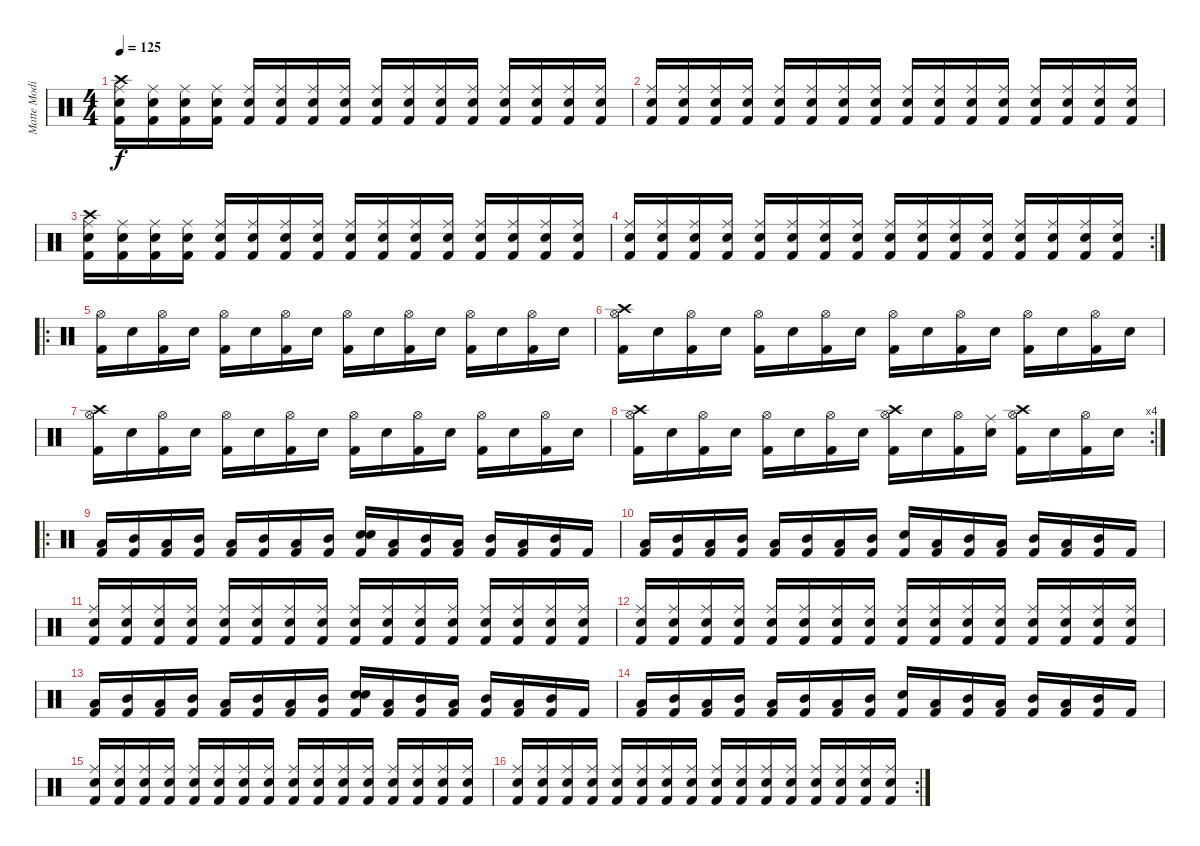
\track ("Matte Modin" "Matte Modi") {instrument percussion}
\staff {score}
\articulation defaults
\ts (4 4)
\tempo 125
\clef neutral
\ks c
("Crash high (hit)" "Kick (hit) 2" "Ride (middle)" "Electric Snare (hit)").16{dy f} ("Kick (hit) 2" "Ride (middle)" "Electric Snare (hit)").16 ("Kick (hit) 2" "Ride (middle)" "Electric Snare (hit)").16 ("Kick (hit) 2" "Ride (middle)" "Electric Snare (hit)").16 ("Kick (hit) 2" "Ride (middle)" "Electric Snare (hit)").16 ("Kick (hit) 2" "Ride (middle)" "Electric Snare (hit)").16 ("Kick (hit) 2" "Ride (middle)" "Electric Snare (hit)").16 ("Kick (hit) 2" "Ride (middle)" "Electric Snare (hit)").16 ("Kick (hit) 2" "Ride (middle)" "Electric Snare (hit)").16 ("Kick (hit) 2" "Ride (middle)" "Electric Snare (hit)").16 ("Kick (hit) 2" "Ride (middle)" "Electric Snare (hit)").16 ("Kick (hit) 2" "Ride (middle)" "Electric Snare (hit)").16 ("Kick (hit) 2" "Ride (middle)" "Electric Snare (hit)").16 ("Kick (hit) 2" "Ride (middle)" "Electric Snare (hit)").16 ("Kick (hit) 2" "Ride (middle)" "Electric Snare (hit)").16 ("Kick (hit) 2" "Ride (middle)" "Electric Snare (hit)").16 |
("Kick (hit) 2" "Ride (middle)" "Electric Snare (hit)").16 ("Kick (hit) 2" "Ride (middle)" "Electric Snare (hit)").16 ("Kick (hit) 2" "Ride (middle)" "Electric Snare (hit)").16 ("Kick (hit) 2" "Ride (middle)" "Electric Snare (hit)").16 ("Kick (hit) 2" "Ride (middle)" "Electric Snare (hit)").16 ("Kick (hit) 2" "Ride (middle)" "Electric Snare (hit)").16 ("Kick (hit) 2" "Ride (middle)" "Electric Snare (hit)").16 ("Kick (hit) 2" "Ride (middle)" "Electric Snare (hit)").16 ("Kick (hit) 2" "Ride (middle)" "Electric Snare (hit)").16 ("Kick (hit) 2" "Ride (middle)" "Electric Snare (hit)").16 ("Kick (hit) 2" "Ride (middle)" "Electric Snare (hit)").16 ("Kick (hit) 2" "Ride (middle)" "Electric Snare (hit)").16 ("Kick (hit) 2" "Ride (middle)" "Electric Snare (hit)").16 ("Kick (hit) 2" "Ride (middle)" "Electric Snare (hit)").16 ("Kick (hit) 2" "Ride (middle)" "Electric Snare (hit)").16 ("Kick (hit) 2" "Ride (middle)" "Electric Snare (hit)").16 |
("Crash high (hit)" "Kick (hit) 2" "Ride (middle)" "Electric Snare (hit)").16 ("Kick (hit) 2" "Ride (middle)" "Electric Snare (hit)").16 ("Kick (hit) 2" "Ride (middle)" "Electric Snare (hit)").16 ("Kick (hit) 2" "Ride (middle)" "Electric Snare (hit)").16 ("Kick (hit) 2" "Ride (middle)" "Electric Snare (hit)").16 ("Kick (hit) 2" "Ride (middle)" "Electric Snare (hit)").16 ("Kick (hit) 2" "Ride (middle)" "Electric Snare (hit)").16 ("Kick (hit) 2" "Ride (middle)" "Electric Snare (hit)").16 ("Kick (hit) 2" "Ride (middle)" "Electric Snare (hit)").16 ("Kick (hit) 2" "Ride (middle)" "Electric Snare (hit)").16 ("Kick (hit) 2" "Ride (middle)" "Electric Snare (hit)").16 ("Kick (hit) 2" "Ride (middle)" "Electric Snare (hit)").16 ("Kick (hit) 2" "Ride (middle)" "Electric Snare (hit)").16 ("Kick (hit) 2" "Ride (middle)" "Electric Snare (hit)").16 ("Kick (hit) 2" "Ride (middle)" "Electric Snare (hit)").16 ("Kick (hit) 2" "Ride (middle)" "Electric Snare (hit)").16 |
\rc 2
("Kick (hit) 2" "Ride (middle)" "Electric Snare (hit)").16 ("Kick (hit) 2" "Ride (middle)" "Electric Snare (hit)").16 ("Kick (hit) 2" "Ride (middle)" "Electric Snare (hit)").16 ("Kick (hit) 2" "Ride (middle)" "Electric Snare (hit)").16 ("Kick (hit) 2" "Ride (middle)" "Electric Snare (hit)").16 ("Kick (hit) 2" "Ride (middle)" "Electric Snare (hit)").16 ("Kick (hit) 2" "Ride (middle)" "Electric Snare (hit)").16 ("Kick (hit) 2" "Ride (middle)" "Electric Snare (hit)").16 ("Kick (hit) 2" "Ride (middle)" "Electric Snare (hit)").16 ("Kick (hit) 2" "Ride (middle)" "Electric Snare (hit)").16 ("Kick (hit) 2" "Ride (middle)" "Electric Snare (hit)").16 ("Kick (hit) 2" "Ride (middle)" "Electric Snare (hit)").16 ("Kick (hit) 2" "Ride (middle)" "Electric Snare (hit)").16 ("Kick (hit) 2" "Ride (middle)" "Electric Snare (hit)").16 ("Kick (hit) 2" "Ride (middle)" "Electric Snare (hit)").16 ("Kick (hit) 2" "Ride (middle)" "Electric Snare (hit)").16 |
\ro
("Hi-Hat (open)" "Kick (hit) 2").16 "Electric Snare (hit)".16 ("Hi-Hat (open)" "Kick (hit) 2").16 "Electric Snare (hit)".16 ("Hi-Hat (open)" "Kick (hit) 2").16 "Electric Snare (hit)".16 ("Hi-Hat (open)" "Kick (hit) 2").16 "Electric Snare (hit)".16 ("Hi-Hat (open)" "Kick (hit) 2").16 "Electric Snare (hit)".16 ("Hi-Hat (open)" "Kick (hit) 2").16 "Electric Snare (hit)".16 ("Hi-Hat (open)" "Kick (hit) 2").16 "Electric Snare (hit)".16 ("Hi-Hat (open)" "Kick (hit) 2").16 "Electric Snare (hit)".16 |
("Crash high (hit)" "Hi-Hat (open)" "Kick (hit) 2").16 "Electric Snare (hit)".16 ("Hi-Hat (open)" "Kick (hit) 2").16 "Electric Snare (hit)".16 ("Hi-Hat (open)" "Kick (hit) 2").16 "Electric Snare (hit)".16 ("Hi-Hat (open)" "Kick (hit) 2").16 "Electric Snare (hit)".16 ("Hi-Hat (open)" "Kick (hit) 2").16 "Electric Snare (hit)".16 ("Hi-Hat (open)" "Kick (hit) 2").16 "Electric Snare (hit)".16 ("Hi-Hat (open)" "Kick (hit) 2").16 "Electric Snare (hit)".16 ("Hi-Hat (open)" "Kick (hit) 2").16 "Electric Snare (hit)".16 |
("Crash high (hit)" "Hi-Hat (open)" "Kick (hit) 2").16 "Electric Snare (hit)".16 ("Hi-Hat (open)" "Kick (hit) 2").16 "Electric Snare (hit)".16 ("Hi-Hat (open)" "Kick (hit) 2").16 "Electric Snare (hit)".16 ("Hi-Hat (open)" "Kick (hit) 2").16 "Electric Snare (hit)".16 ("Hi-Hat (open)" "Kick (hit) 2").16 "Electric Snare (hit)".16 ("Hi-Hat (open)" "Kick (hit) 2").16 "Electric Snare (hit)".16 ("Hi-Hat (open)" "Kick (hit) 2").16 "Electric Snare (hit)".16 ("Hi-Hat (open)" "Kick (hit) 2").16 "Electric Snare (hit)".16 |
\rc 4
("Crash high (hit)" "Hi-Hat (open)" "Kick (hit) 2").16 "Electric Snare (hit)".16 ("Hi-Hat (open)" "Kick (hit) 2").16 "Electric Snare (hit)".16 ("Hi-Hat (open)" "Kick (hit) 2").16 "Electric Snare (hit)".16 ("Hi-Hat (open)" "Kick (hit) 2").16 "Electric Snare (hit)".16 ("Crash high (hit)" "Hi-Hat (open)" "Kick (hit) 2").16 "Electric Snare (hit)".16 ("Hi-Hat (open)" "Kick (hit) 2").16 ("Ride (middle)" "Electric Snare (hit)").16 ("Crash high (hit)" "Hi-Hat (open)" "Kick (hit) 2").16 "Electric Snare (hit)".16 ("Hi-Hat (open)" "Kick (hit) 2").16 "Electric Snare (hit)".16 |
\ro
("Low Tom (hit)" "Kick (hit) 2").16 ("Mid Tom (hit)" "Kick (hit) 2").16 ("Low Tom (hit)" "Kick (hit) 2").16 ("Mid Tom (hit)" "Kick (hit) 2").16 ("Low Tom (hit)" "Kick (hit) 2").16 ("Mid Tom (hit)" "Kick (hit) 2").16 ("Low Tom (hit)" "Kick (hit) 2").16 ("Mid Tom (hit)" "Kick (hit) 2").16 ("Electric Snare (hit)" "Electric Snare (hit)" "Kick (hit) 2").16 ("Low Tom (hit)" "Kick (hit) 2").16 ("Mid Tom (hit)" "Kick (hit) 2").16 ("Low Tom (hit)" "Kick (hit) 2").16 ("Mid Tom (hit)" "Kick (hit) 2").16 ("Low Tom (hit)" "Kick (hit) 2").16 ("Mid Tom (hit)" "Kick (hit) 2").16 "Kick (hit) 2".16 |
("Low Tom (hit)" "Kick (hit) 2").16 ("Mid Tom (hit)" "Kick (hit) 2").16 ("Low Tom (hit)" "Kick (hit) 2").16 ("Mid Tom (hit)" "Kick (hit) 2").16 ("Low Tom (hit)" "Kick (hit) 2").16 ("Mid Tom (hit)" "Kick (hit) 2").16 ("Low Tom (hit)" "Kick (hit) 2").16 ("Mid Tom (hit)" "Kick (hit) 2").16 ("Electric Snare (hit)" "Kick (hit) 2").16 ("Low Tom (hit)" "Kick (hit) 2").16 ("Mid Tom (hit)" "Kick (hit) 2").16 ("Low Tom (hit)" "Kick (hit) 2").16 ("Mid Tom (hit)" "Kick (hit) 2").16 ("Low Tom (hit)" "Kick (hit) 2").16 ("Mid Tom (hit)" "Kick (hit) 2").16 "Kick (hit) 2".16 |
("Kick (hit) 2" "Ride (middle)" "Electric Snare (hit)").16 ("Kick (hit) 2" "Ride (middle)" "Electric Snare (hit)").16 ("Kick (hit) 2" "Ride (middle)" "Electric Snare (hit)").16 ("Kick (hit) 2" "Ride (middle)" "Electric Snare (hit)").16 ("Kick (hit) 2" "Ride (middle)" "Electric Snare (hit)").16 ("Kick (hit) 2" "Ride (middle)" "Electric Snare (hit)").16 ("Kick (hit) 2" "Ride (middle)" "Electric Snare (hit)").16 ("Kick (hit) 2" "Ride (middle)" "Electric Snare (hit)").16 ("Kick (hit) 2" "Ride (middle)" "Electric Snare (hit)").16 ("Kick (hit) 2" "Ride (middle)" "Electric Snare (hit)").16 ("Kick (hit) 2" "Ride (middle)" "Electric Snare (hit)").16 ("Kick (hit) 2" "Ride (middle)" "Electric Snare (hit)").16 ("Kick (hit) 2" "Ride (middle)" "Electric Snare (hit)").16 ("Kick (hit) 2" "Ride (middle)" "Electric Snare (hit)").16 ("Kick (hit) 2" "Ride (middle)" "Electric Snare (hit)").16 ("Kick (hit) 2" "Ride (middle)" "Electric Snare (hit)").16 |
("Kick (hit) 2" "Ride (middle)" "Electric Snare (hit)").16 ("Kick (hit) 2" "Ride (middle)" "Electric Snare (hit)").16 ("Kick (hit) 2" "Ride (middle)" "Electric Snare (hit)").16 ("Kick (hit) 2" "Ride (middle)" "Electric Snare (hit)").16 ("Kick (hit) 2" "Ride (middle)" "Electric Snare (hit)").16 ("Kick (hit) 2" "Ride (middle)" "Electric Snare (hit)").16 ("Kick (hit) 2" "Ride (middle)" "Electric Snare (hit)").16 ("Kick (hit) 2" "Ride (middle)" "Electric Snare (hit)").16 ("Kick (hit) 2" "Ride (middle)" "Electric Snare (hit)").16 ("Kick (hit) 2" "Ride (middle)" "Electric Snare (hit)").16 ("Kick (hit) 2" "Ride (middle)" "Electric Snare (hit)").16 ("Kick (hit) 2" "Ride (middle)" "Electric Snare (hit)").16 ("Kick (hit) 2" "Ride (middle)" "Electric Snare (hit)").16 ("Kick (hit) 2" "Ride (middle)" "Electric Snare (hit)").16 ("Kick (hit) 2" "Ride (middle)" "Electric Snare (hit)").16 ("Kick (hit) 2" "Ride (middle)" "Electric Snare (hit)").16 |
("Low Tom (hit)" "Kick (hit) 2").16 ("Mid Tom (hit)" "Kick (hit) 2").16 ("Low Tom (hit)" "Kick (hit) 2").16 ("Mid Tom (hit)" "Kick (hit) 2").16 ("Low Tom (hit)" "Kick (hit) 2").16 ("Mid Tom (hit)" "Kick (hit) 2").16 ("Low Tom (hit)" "Kick (hit) 2").16 ("Mid Tom (hit)" "Kick (hit) 2").16 ("Electric Snare (hit)" "Electric Snare (hit)" "Kick (hit) 2").16 ("Low Tom (hit)" "Kick (hit) 2").16 ("Mid Tom (hit)" "Kick (hit) 2").16 ("Low Tom (hit)" "Kick (hit) 2").16 ("Mid Tom (hit)" "Kick (hit) 2").16 ("Low Tom (hit)" "Kick (hit) 2").16 ("Mid Tom (hit)" "Kick (hit) 2").16 "Kick (hit) 2".16 |
("Low Tom (hit)" "Kick (hit) 2").16 ("Mid Tom (hit)" "Kick (hit) 2").16 ("Low Tom (hit)" "Kick (hit) 2").16 ("Mid Tom (hit)" "Kick (hit) 2").16 ("Low Tom (hit)" "Kick (hit) 2").16 ("Mid Tom (hit)" "Kick (hit) 2").16 ("Low Tom (hit)" "Kick (hit) 2").16 ("Mid Tom (hit)" "Kick (hit) 2").16 ("Electric Snare (hit)" "Kick (hit) 2").16 ("Low Tom (hit)" "Kick (hit) 2").16 ("Mid Tom (hit)" "Kick (hit) 2").16 ("Low Tom (hit)" "Kick (hit) 2").16 ("Mid Tom (hit)" "Kick (hit) 2").16 ("Low Tom (hit)" "Kick (hit) 2").16 ("Mid Tom (hit)" "Kick (hit) 2").16 "Kick (hit) 2".16 |
("Kick (hit) 2" "Ride (middle)" "Electric Snare (hit)").16 ("Kick (hit) 2" "Ride (middle)" "Electric Snare (hit)").16 ("Kick (hit) 2" "Ride (middle)" "Electric Snare (hit)").16 ("Kick (hit) 2" "Ride (middle)" "Electric Snare (hit)").16 ("Kick (hit) 2" "Ride (middle)" "Electric Snare (hit)").16 ("Kick (hit) 2" "Ride (middle)" "Electric Snare (hit)").16 ("Kick (hit) 2" "Ride (middle)" "Electric Snare (hit)").16 ("Kick (hit) 2" "Ride (middle)" "Electric Snare (hit)").16 ("Kick (hit) 2" "Ride (middle)" "Electric Snare (hit)").16 ("Kick (hit) 2" "Ride (middle)" "Electric Snare (hit)").16 ("Kick (hit) 2" "Ride (middle)" "Electric Snare (hit)").16 ("Kick (hit) 2" "Ride (middle)" "Electric Snare (hit)").16 ("Kick (hit) 2" "Ride (middle)" "Electric Snare (hit)").16 ("Kick (hit) 2" "Ride (middle)" "Electric Snare (hit)").16 ("Kick (hit) 2" "Ride (middle)" "Electric Snare (hit)").16 ("Kick (hit) 2" "Ride (middle)" "Electric Snare (hit)").16 |
\rc 2
("Kick (hit) 2" "Ride (middle)" "Electric Snare (hit)").16 ("Kick (hit) 2" "Ride (middle)" "Electric Snare (hit)").16 ("Kick (hit) 2" "Ride (middle)" "Electric Snare (hit)").16 ("Kick (hit) 2" "Ride (middle)" "Electric Snare (hit)").16 ("Kick (hit) 2" "Ride (middle)" "Electric Snare (hit)").16 ("Kick (hit) 2" "Ride (middle)" "Electric Snare (hit)").16 ("Kick (hit) 2" "Ride (middle)" "Electric Snare (hit)").16 ("Kick (hit) 2" "Ride (middle)" "Electric Snare (hit)").16 ("Kick (hit) 2" "Ride (middle)" "Electric Snare (hit)").16 ("Kick (hit) 2" "Ride (middle)" "Electric Snare (hit)").16 ("Kick (hit) 2" "Ride (middle)" "Electric Snare (hit)").16 ("Kick (hit) 2" "Ride (middle)" "Electric Snare (hit)").16 ("Kick (hit) 2" "Ride (middle)" "Electric Snare (hit)").16 ("Kick (hit) 2" "Ride (middle)" "Electric Snare (hit)").16 ("Kick (hit) 2" "Ride (middle)" "Electric Snare (hit)").16 ("Kick (hit) 2" "Ride (middle)" "Electric Snare (hit)").16
